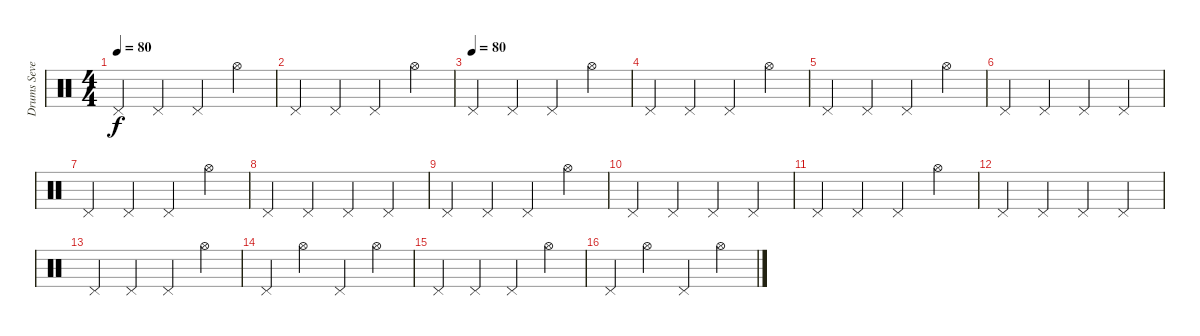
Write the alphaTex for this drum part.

\track ("Drums Severin " "Drums Seve") {instrument percussion}
\staff {score}
\articulation defaults
\ts (4 4)
\tempo 80
\clef neutral
\ks c "Pedal Hi-Hat (hit)".4{dy f} "Pedal Hi-Hat (hit)".4 "Pedal Hi-Hat (hit)".4 "Hi-Hat (open)".4
|
"Pedal Hi-Hat (hit)".4 "Pedal Hi-Hat (hit)".4 "Pedal Hi-Hat (hit)".4 "Hi-Hat (open)".4 |
\tempo (80)
"Pedal Hi-Hat (hit)".4 "Pedal Hi-Hat (hit)".4 "Pedal Hi-Hat (hit)".4 "Hi-Hat (open)".4 |
"Pedal Hi-Hat (hit)".4 "Pedal Hi-Hat (hit)".4 "Pedal Hi-Hat (hit)".4 "Hi-Hat (open)".4 |
"Pedal Hi-Hat (hit)".4 "Pedal Hi-Hat (hit)".4 "Pedal Hi-Hat (hit)".4 "Hi-Hat (open)".4 |
"Pedal Hi-Hat (hit)".4 "Pedal Hi-Hat (hit)".4 "Pedal Hi-Hat (hit)".4 "Pedal Hi-Hat (hit)".4 |
"Pedal Hi-Hat (hit)".4 "Pedal Hi-Hat (hit)".4 "Pedal Hi-Hat (hit)".4 "Hi-Hat (open)".4 |
"Pedal Hi-Hat (hit)".4 "Pedal Hi-Hat (hit)".4 "Pedal Hi-Hat (hit)".4 "Pedal Hi-Hat (hit)".4 |
"Pedal Hi-Hat (hit)".4 "Pedal Hi-Hat (hit)".4 "Pedal Hi-Hat (hit)".4 "Hi-Hat (open)".4 |
"Pedal Hi-Hat (hit)".4 "Pedal Hi-Hat (hit)".4 "Pedal Hi-Hat (hit)".4 "Pedal Hi-Hat (hit)".4 |
"Pedal Hi-Hat (hit)".4 "Pedal Hi-Hat (hit)".4 "Pedal Hi-Hat (hit)".4 "Hi-Hat (open)".4 |
"Pedal Hi-Hat (hit)".4 "Pedal Hi-Hat (hit)".4 "Pedal Hi-Hat (hit)".4 "Pedal Hi-Hat (hit)".4 |
"Pedal Hi-Hat (hit)".4 "Pedal Hi-Hat (hit)".4 "Pedal Hi-Hat (hit)".4 "Hi-Hat (open)".4 |
"Pedal Hi-Hat (hit)".4 "Hi-Hat (open)".4 "Pedal Hi-Hat (hit)".4 "Hi-Hat (open)".4 |
"Pedal Hi-Hat (hit)".4 "Pedal Hi-Hat (hit)".4 "Pedal Hi-Hat (hit)".4 "Hi-Hat (open)".4 |
"Pedal Hi-Hat (hit)".4 "Hi-Hat (open)".4 "Pedal Hi-Hat (hit)".4 "Hi-Hat (open)".4
